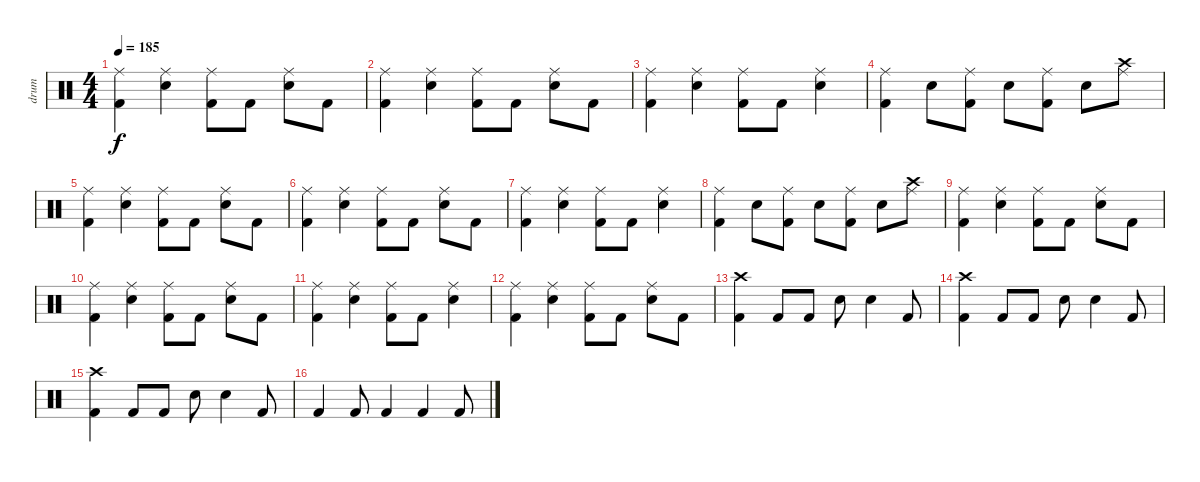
\track ("drum" "drum") {instrument percussion}
\staff {score}
\articulation defaults
\ts (4 4)
\tempo 185
\clef neutral
\ks c
("Ride (middle)" "Kick (hit) 2").4{dy f} ("Ride (middle)" "Snare (hit) 2").4 ("Ride (middle)" "Kick (hit) 2").8 "Kick (hit) 2".8 ("Ride (middle)" "Snare (hit) 2").8 "Kick (hit) 2".8 |
("Ride (middle)" "Kick (hit) 2").4 ("Ride (middle)" "Snare (hit) 2").4 ("Ride (middle)" "Kick (hit) 2").8 "Kick (hit) 2".8 ("Ride (middle)" "Snare (hit) 2").8 "Kick (hit) 2".8 |
("Ride (middle)" "Kick (hit) 2").4 ("Ride (middle)" "Snare (hit) 2").4 ("Ride (middle)" "Kick (hit) 2").8 "Kick (hit) 2".8 ("Ride (middle)" "Snare (hit) 2").4 |
("Ride (middle)" "Kick (hit) 2").4 "Snare (hit) 2".8 ("Ride (middle)" "Kick (hit) 2").8 "Snare (hit) 2".8 ("Ride (middle)" "Kick (hit) 2").8 "Snare (hit) 2".8 ("Ride (middle)" "Crash high (hit)").8 |
("Ride (middle)" "Kick (hit) 2").4 ("Ride (middle)" "Snare (hit) 2").4 ("Ride (middle)" "Kick (hit) 2").8 "Kick (hit) 2".8 ("Ride (middle)" "Snare (hit) 2").8 "Kick (hit) 2".8 |
("Ride (middle)" "Kick (hit) 2").4 ("Ride (middle)" "Snare (hit) 2").4 ("Ride (middle)" "Kick (hit) 2").8 "Kick (hit) 2".8 ("Ride (middle)" "Snare (hit) 2").8 "Kick (hit) 2".8 |
("Ride (middle)" "Kick (hit) 2").4 ("Ride (middle)" "Snare (hit) 2").4 ("Ride (middle)" "Kick (hit) 2").8 "Kick (hit) 2".8 ("Ride (middle)" "Snare (hit) 2").4 |
("Ride (middle)" "Kick (hit) 2").4 "Snare (hit) 2".8 ("Ride (middle)" "Kick (hit) 2").8 "Snare (hit) 2".8 ("Ride (middle)" "Kick (hit) 2").8 "Snare (hit) 2".8 ("Ride (middle)" "Crash high (hit)").8 |
("Ride (middle)" "Kick (hit) 2").4 ("Ride (middle)" "Snare (hit) 2").4 ("Ride (middle)" "Kick (hit) 2").8 "Kick (hit) 2".8 ("Ride (middle)" "Snare (hit) 2").8 "Kick (hit) 2".8 |
("Ride (middle)" "Kick (hit) 2").4 ("Ride (middle)" "Snare (hit) 2").4 ("Ride (middle)" "Kick (hit) 2").8 "Kick (hit) 2".8 ("Ride (middle)" "Snare (hit) 2").8 "Kick (hit) 2".8 |
("Ride (middle)" "Kick (hit) 2").4 ("Ride (middle)" "Snare (hit) 2").4 ("Ride (middle)" "Kick (hit) 2").8 "Kick (hit) 2".8 ("Ride (middle)" "Snare (hit) 2").4 |
("Ride (middle)" "Kick (hit) 2").4 ("Ride (middle)" "Snare (hit) 2").4 ("Ride (middle)" "Kick (hit) 2").8 "Kick (hit) 2".8 ("Ride (middle)" "Snare (hit) 2").8 "Kick (hit) 2".8 |
("Crash high (hit)" "Kick (hit) 2").4 "Kick (hit) 2".8 "Kick (hit) 2".8 "Snare (hit) 2".8 "Snare (hit) 2".4 "Kick (hit) 2".8 |
("Crash high (hit)" "Kick (hit) 2").4 "Kick (hit) 2".8 "Kick (hit) 2".8 "Snare (hit) 2".8 "Snare (hit) 2".4 "Kick (hit) 2".8 |
("Crash high (hit)" "Kick (hit) 2").4 "Kick (hit) 2".8 "Kick (hit) 2".8 "Snare (hit) 2".8 "Snare (hit) 2".4 "Kick (hit) 2".8 |
"Kick (hit) 2".4 "Kick (hit) 2".8 "Kick (hit) 2".4 "Kick (hit) 2".4 "Kick (hit) 2".8
